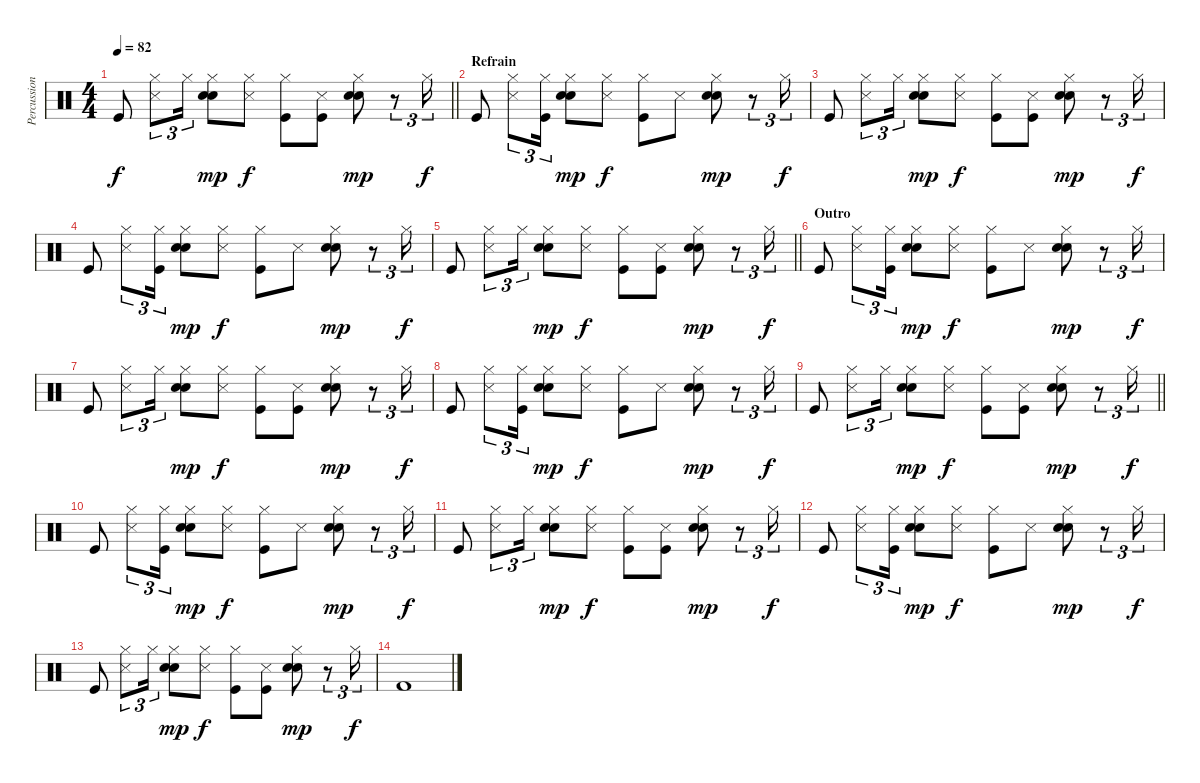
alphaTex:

\track ("Percussion" "Percussion") {instrument percussion}
\staff {score}
\articulation defaults
\ts (4 4)
\tempo 82
\clef neutral
\barLineRight lightlight
\ks c "Kick (hit)".8{dy f}
("Hi-Hat (closed)" "Snare (side stick) 3").8{tu (3 2)} "Hi-Hat (closed)".16{tu (3 2)} ("Hi-Hat (closed)" "Hand Clap (hit)" "Electric Snare (hit)").8{dy mp} ("Hi-Hat (closed)" "Snare (side stick) 3").8{dy f} ("Hi-Hat (closed)" "Kick (hit)").8 ("Snare (side stick) 3" "Kick (hit)").8 ("Hi-Hat (closed)" "Hand Clap (hit)" "Electric Snare (hit)").8{dy mp} r.8{tu (3 2)} "Hi-Hat (closed)".16{tu (3 2) dy f} |
\section ("" "Refrain")
"Kick (hit)".8 ("Hi-Hat (closed)" "Snare (side stick) 3").8{tu (3 2)} ("Hi-Hat (closed)" "Kick (hit)").16{tu (3 2)} ("Hi-Hat (closed)" "Hand Clap (hit)" "Electric Snare (hit)").8{dy mp} ("Hi-Hat (closed)" "Snare (side stick) 3").8{dy f} ("Hi-Hat (closed)" "Kick (hit)").8 "Snare (side stick) 3".8 ("Hi-Hat (closed)" "Hand Clap (hit)" "Electric Snare (hit)").8{dy mp} r.8{tu (3 2)} "Hi-Hat (closed)".16{tu (3 2) dy f} |
"Kick (hit)".8 ("Hi-Hat (closed)" "Snare (side stick) 3").8{tu (3 2)} "Hi-Hat (closed)".16{tu (3 2)} ("Hi-Hat (closed)" "Hand Clap (hit)" "Electric Snare (hit)").8{dy mp} ("Hi-Hat (closed)" "Snare (side stick) 3").8{dy f} ("Hi-Hat (closed)" "Kick (hit)").8 ("Snare (side stick) 3" "Kick (hit)").8 ("Hi-Hat (closed)" "Hand Clap (hit)" "Electric Snare (hit)").8{dy mp} r.8{tu (3 2)} "Hi-Hat (closed)".16{tu (3 2) dy f} |
"Kick (hit)".8 ("Hi-Hat (closed)" "Snare (side stick) 3").8{tu (3 2)} ("Hi-Hat (closed)" "Kick (hit)").16{tu (3 2)} ("Hi-Hat (closed)" "Hand Clap (hit)" "Electric Snare (hit)").8{dy mp} ("Hi-Hat (closed)" "Snare (side stick) 3").8{dy f} ("Hi-Hat (closed)" "Kick (hit)").8 "Snare (side stick) 3".8 ("Hi-Hat (closed)" "Hand Clap (hit)" "Electric Snare (hit)").8{dy mp} r.8{tu (3 2)} "Hi-Hat (closed)".16{tu (3 2) dy f} |
\barLineRight lightlight "Kick (hit)".8
("Hi-Hat (closed)" "Snare (side stick) 3").8{tu (3 2)} "Hi-Hat (closed)".16{tu (3 2)} ("Hi-Hat (closed)" "Hand Clap (hit)" "Electric Snare (hit)").8{dy mp} ("Hi-Hat (closed)" "Snare (side stick) 3").8{dy f} ("Hi-Hat (closed)" "Kick (hit)").8 ("Snare (side stick) 3" "Kick (hit)").8 ("Hi-Hat (closed)" "Hand Clap (hit)" "Electric Snare (hit)").8{dy mp} r.8{tu (3 2)} "Hi-Hat (closed)".16{tu (3 2) dy f} |
\section ("" "Outro")
"Kick (hit)".8 ("Hi-Hat (closed)" "Snare (side stick) 3").8{tu (3 2)} ("Hi-Hat (closed)" "Kick (hit)").16{tu (3 2)} ("Hi-Hat (closed)" "Hand Clap (hit)" "Electric Snare (hit)").8{dy mp} ("Hi-Hat (closed)" "Snare (side stick) 3").8{dy f} ("Hi-Hat (closed)" "Kick (hit)").8 "Snare (side stick) 3".8 ("Hi-Hat (closed)" "Hand Clap (hit)" "Electric Snare (hit)").8{dy mp} r.8{tu (3 2)} "Hi-Hat (closed)".16{tu (3 2) dy f} |
"Kick (hit)".8 ("Hi-Hat (closed)" "Snare (side stick) 3").8{tu (3 2)} "Hi-Hat (closed)".16{tu (3 2)} ("Hi-Hat (closed)" "Hand Clap (hit)" "Electric Snare (hit)").8{dy mp} ("Hi-Hat (closed)" "Snare (side stick) 3").8{dy f} ("Hi-Hat (closed)" "Kick (hit)").8 ("Snare (side stick) 3" "Kick (hit)").8 ("Hi-Hat (closed)" "Hand Clap (hit)" "Electric Snare (hit)").8{dy mp} r.8{tu (3 2)} "Hi-Hat (closed)".16{tu (3 2) dy f} |
"Kick (hit)".8 ("Hi-Hat (closed)" "Snare (side stick) 3").8{tu (3 2)} ("Hi-Hat (closed)" "Kick (hit)").16{tu (3 2)} ("Hi-Hat (closed)" "Hand Clap (hit)" "Electric Snare (hit)").8{dy mp} ("Hi-Hat (closed)" "Snare (side stick) 3").8{dy f} ("Hi-Hat (closed)" "Kick (hit)").8 "Snare (side stick) 3".8 ("Hi-Hat (closed)" "Hand Clap (hit)" "Electric Snare (hit)").8{dy mp} r.8{tu (3 2)} "Hi-Hat (closed)".16{tu (3 2) dy f} |
\barLineRight lightlight "Kick (hit)".8
("Hi-Hat (closed)" "Snare (side stick) 3").8{tu (3 2)} "Hi-Hat (closed)".16{tu (3 2)} ("Hi-Hat (closed)" "Hand Clap (hit)" "Electric Snare (hit)").8{dy mp} ("Hi-Hat (closed)" "Snare (side stick) 3").8{dy f} ("Hi-Hat (closed)" "Kick (hit)").8 ("Snare (side stick) 3" "Kick (hit)").8 ("Hi-Hat (closed)" "Hand Clap (hit)" "Electric Snare (hit)").8{dy mp} r.8{tu (3 2)} "Hi-Hat (closed)".16{tu (3 2) dy f} |
"Kick (hit)".8 ("Hi-Hat (closed)" "Snare (side stick) 3").8{tu (3 2)} ("Hi-Hat (closed)" "Kick (hit)").16{tu (3 2)} ("Hi-Hat (closed)" "Hand Clap (hit)" "Electric Snare (hit)").8{dy mp} ("Hi-Hat (closed)" "Snare (side stick) 3").8{dy f} ("Hi-Hat (closed)" "Kick (hit)").8 "Snare (side stick) 3".8 ("Hi-Hat (closed)" "Hand Clap (hit)" "Electric Snare (hit)").8{dy mp} r.8{tu (3 2)} "Hi-Hat (closed)".16{tu (3 2) dy f} |
"Kick (hit)".8 ("Hi-Hat (closed)" "Snare (side stick) 3").8{tu (3 2)} "Hi-Hat (closed)".16{tu (3 2)} ("Hi-Hat (closed)" "Hand Clap (hit)" "Electric Snare (hit)").8{dy mp} ("Hi-Hat (closed)" "Snare (side stick) 3").8{dy f} ("Hi-Hat (closed)" "Kick (hit)").8 ("Snare (side stick) 3" "Kick (hit)").8 ("Hi-Hat (closed)" "Hand Clap (hit)" "Electric Snare (hit)").8{dy mp} r.8{tu (3 2)} "Hi-Hat (closed)".16{tu (3 2) dy f} |
"Kick (hit)".8 ("Hi-Hat (closed)" "Snare (side stick) 3").8{tu (3 2)} ("Hi-Hat (closed)" "Kick (hit)").16{tu (3 2)} ("Hi-Hat (closed)" "Hand Clap (hit)" "Electric Snare (hit)").8{dy mp} ("Hi-Hat (closed)" "Snare (side stick) 3").8{dy f} ("Hi-Hat (closed)" "Kick (hit)").8 "Snare (side stick) 3".8 ("Hi-Hat (closed)" "Hand Clap (hit)" "Electric Snare (hit)").8{dy mp} r.8{tu (3 2)} "Hi-Hat (closed)".16{tu (3 2) dy f} |
"Kick (hit)".8 ("Hi-Hat (closed)" "Snare (side stick) 3").8{tu (3 2)} "Hi-Hat (closed)".16{tu (3 2)} ("Hi-Hat (closed)" "Hand Clap (hit)" "Electric Snare (hit)").8{dy mp} ("Hi-Hat (closed)" "Snare (side stick) 3").8{dy f} ("Hi-Hat (closed)" "Kick (hit)").8 ("Snare (side stick) 3" "Kick (hit)").8 ("Hi-Hat (closed)" "Hand Clap (hit)" "Electric Snare (hit)").8{dy mp} r.8{tu (3 2)} "Hi-Hat (closed)".16{tu (3 2) dy f} |
"Kick (hit) 2".1
